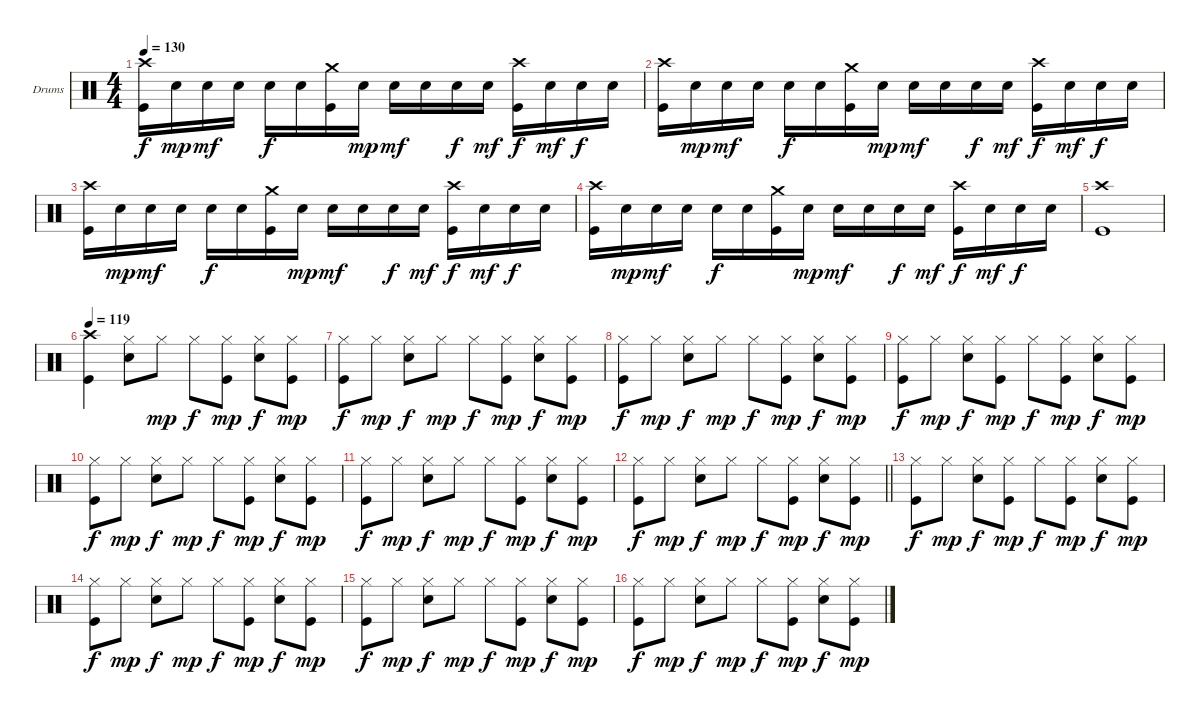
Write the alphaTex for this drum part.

\bracketExtendMode groupsimilarinstruments
\firstSystemTrackNameOrientation horizontal
\otherSystemsTrackNameOrientation horizontal
\track ("Drumkit" "Drums") {instrument percussion}
\staff {score}
\articulation defaults
\ts (4 4)
\tempo 130
\clef neutral
\ks c
("Crash high (hit)" "Kick (hit)").16{dy f} "Snare (hit) 2".16{dy mp} "Snare (hit) 2".16{dy mf} "Snare (hit) 2".16 "Snare (hit) 2".16{dy f} "Snare (hit) 2".16 ("Crash medium (hit)" "Kick (hit)").16 "Snare (hit) 2".16{dy mp} "Snare (hit) 2".16{dy mf} "Snare (hit) 2".16 "Snare (hit) 2".16{dy f} "Snare (hit) 2".16{dy mf} ("Crash high (hit)" "Kick (hit)").16{dy f} "Snare (hit) 2".16{dy mf} "Snare (hit) 2".16{dy f} "Snare (hit) 2".16 |
("Crash high (hit)" "Kick (hit)").16 "Snare (hit) 2".16{dy mp} "Snare (hit) 2".16{dy mf} "Snare (hit) 2".16 "Snare (hit) 2".16{dy f} "Snare (hit) 2".16 ("Crash medium (hit)" "Kick (hit)").16 "Snare (hit) 2".16{dy mp} "Snare (hit) 2".16{dy mf} "Snare (hit) 2".16 "Snare (hit) 2".16{dy f} "Snare (hit) 2".16{dy mf} ("Crash high (hit)" "Kick (hit)").16{dy f} "Snare (hit) 2".16{dy mf} "Snare (hit) 2".16{dy f} "Snare (hit) 2".16 |
("Crash high (hit)" "Kick (hit)").16 "Snare (hit) 2".16{dy mp} "Snare (hit) 2".16{dy mf} "Snare (hit) 2".16 "Snare (hit) 2".16{dy f} "Snare (hit) 2".16 ("Crash medium (hit)" "Kick (hit)").16 "Snare (hit) 2".16{dy mp} "Snare (hit) 2".16{dy mf} "Snare (hit) 2".16 "Snare (hit) 2".16{dy f} "Snare (hit) 2".16{dy mf} ("Crash high (hit)" "Kick (hit)").16{dy f} "Snare (hit) 2".16{dy mf} "Snare (hit) 2".16{dy f} "Snare (hit) 2".16 |
("Crash high (hit)" "Kick (hit)").16 "Snare (hit) 2".16{dy mp} "Snare (hit) 2".16{dy mf} "Snare (hit) 2".16 "Snare (hit) 2".16{dy f} "Snare (hit) 2".16 ("Crash medium (hit)" "Kick (hit)").16 "Snare (hit) 2".16{dy mp} "Snare (hit) 2".16{dy mf} "Snare (hit) 2".16 "Snare (hit) 2".16{dy f} "Snare (hit) 2".16{dy mf} ("Crash high (hit)" "Kick (hit)").16{dy f} "Snare (hit) 2".16{dy mf} "Snare (hit) 2".16{dy f} "Snare (hit) 2".16 |
("Crash high (hit)" "Kick (hit)").1 |
\tempo 119
("Crash high (hit)" "Kick (hit)").4 ("Hi-Hat (closed)" "Snare (hit) 2").8 "Hi-Hat (closed)".8{dy mp} "Hi-Hat (closed)".8{dy f} ("Hi-Hat (closed)" "Kick (hit)").8{dy mp} ("Hi-Hat (closed)" "Snare (hit) 2").8{dy f} ("Hi-Hat (closed)" "Kick (hit)").8{dy mp} |
("Hi-Hat (closed)" "Kick (hit)").8{dy f} "Hi-Hat (closed)".8{dy mp} ("Hi-Hat (closed)" "Snare (hit) 2").8{dy f} "Hi-Hat (closed)".8{dy mp} "Hi-Hat (closed)".8{dy f} ("Hi-Hat (closed)" "Kick (hit)").8{dy mp} ("Hi-Hat (closed)" "Snare (hit) 2").8{dy f} ("Hi-Hat (closed)" "Kick (hit)").8{dy mp} |
("Hi-Hat (closed)" "Kick (hit)").8{dy f} "Hi-Hat (closed)".8{dy mp} ("Hi-Hat (closed)" "Snare (hit) 2").8{dy f} "Hi-Hat (closed)".8{dy mp} "Hi-Hat (closed)".8{dy f} ("Hi-Hat (closed)" "Kick (hit)").8{dy mp} ("Hi-Hat (closed)" "Snare (hit) 2").8{dy f} ("Hi-Hat (closed)" "Kick (hit)").8{dy mp} |
("Hi-Hat (closed)" "Kick (hit)").8{dy f} "Hi-Hat (closed)".8{dy mp} ("Hi-Hat (closed)" "Snare (hit) 2").8{dy f} ("Hi-Hat (closed)" "Kick (hit)").8{dy mp} "Hi-Hat (closed)".8{dy f} ("Hi-Hat (closed)" "Kick (hit)").8{dy mp} ("Hi-Hat (closed)" "Snare (hit) 2").8{dy f} ("Hi-Hat (closed)" "Kick (hit)").8{dy mp} |
("Hi-Hat (closed)" "Kick (hit)").8{dy f} "Hi-Hat (closed)".8{dy mp} ("Hi-Hat (closed)" "Snare (hit) 2").8{dy f} "Hi-Hat (closed)".8{dy mp} "Hi-Hat (closed)".8{dy f} ("Hi-Hat (closed)" "Kick (hit)").8{dy mp} ("Hi-Hat (closed)" "Snare (hit) 2").8{dy f} ("Hi-Hat (closed)" "Kick (hit)").8{dy mp} |
("Hi-Hat (closed)" "Kick (hit)").8{dy f} "Hi-Hat (closed)".8{dy mp} ("Hi-Hat (closed)" "Snare (hit) 2").8{dy f} "Hi-Hat (closed)".8{dy mp} "Hi-Hat (closed)".8{dy f} ("Hi-Hat (closed)" "Kick (hit)").8{dy mp} ("Hi-Hat (closed)" "Snare (hit) 2").8{dy f} ("Hi-Hat (closed)" "Kick (hit)").8{dy mp} |
\barLineRight lightlight
("Hi-Hat (closed)" "Kick (hit)").8{dy f} "Hi-Hat (closed)".8{dy mp} ("Hi-Hat (closed)" "Snare (hit) 2").8{dy f} "Hi-Hat (closed)".8{dy mp} "Hi-Hat (closed)".8{dy f} ("Hi-Hat (closed)" "Kick (hit)").8{dy mp} ("Hi-Hat (closed)" "Snare (hit) 2").8{dy f} ("Hi-Hat (closed)" "Kick (hit)").8{dy mp} |
("Hi-Hat (closed)" "Kick (hit)").8{dy f} "Hi-Hat (closed)".8{dy mp} ("Hi-Hat (closed)" "Snare (hit) 2").8{dy f} ("Hi-Hat (closed)" "Kick (hit)").8{dy mp} "Hi-Hat (closed)".8{dy f} ("Hi-Hat (closed)" "Kick (hit)").8{dy mp} ("Hi-Hat (closed)" "Snare (hit) 2").8{dy f} ("Hi-Hat (closed)" "Kick (hit)").8{dy mp} |
("Hi-Hat (closed)" "Kick (hit)").8{dy f} "Hi-Hat (closed)".8{dy mp} ("Hi-Hat (closed)" "Snare (hit) 2").8{dy f} "Hi-Hat (closed)".8{dy mp} "Hi-Hat (closed)".8{dy f} ("Hi-Hat (closed)" "Kick (hit)").8{dy mp} ("Hi-Hat (closed)" "Snare (hit) 2").8{dy f} ("Hi-Hat (closed)" "Kick (hit)").8{dy mp} |
("Hi-Hat (closed)" "Kick (hit)").8{dy f} "Hi-Hat (closed)".8{dy mp} ("Hi-Hat (closed)" "Snare (hit) 2").8{dy f} "Hi-Hat (closed)".8{dy mp} "Hi-Hat (closed)".8{dy f} ("Hi-Hat (closed)" "Kick (hit)").8{dy mp} ("Hi-Hat (closed)" "Snare (hit) 2").8{dy f} ("Hi-Hat (closed)" "Kick (hit)").8{dy mp} |
("Hi-Hat (closed)" "Kick (hit)").8{dy f} "Hi-Hat (closed)".8{dy mp} ("Hi-Hat (closed)" "Snare (hit) 2").8{dy f} "Hi-Hat (closed)".8{dy mp} "Hi-Hat (closed)".8{dy f} ("Hi-Hat (closed)" "Kick (hit)").8{dy mp} ("Hi-Hat (closed)" "Snare (hit) 2").8{dy f} ("Hi-Hat (closed)" "Kick (hit)").8{dy mp}
